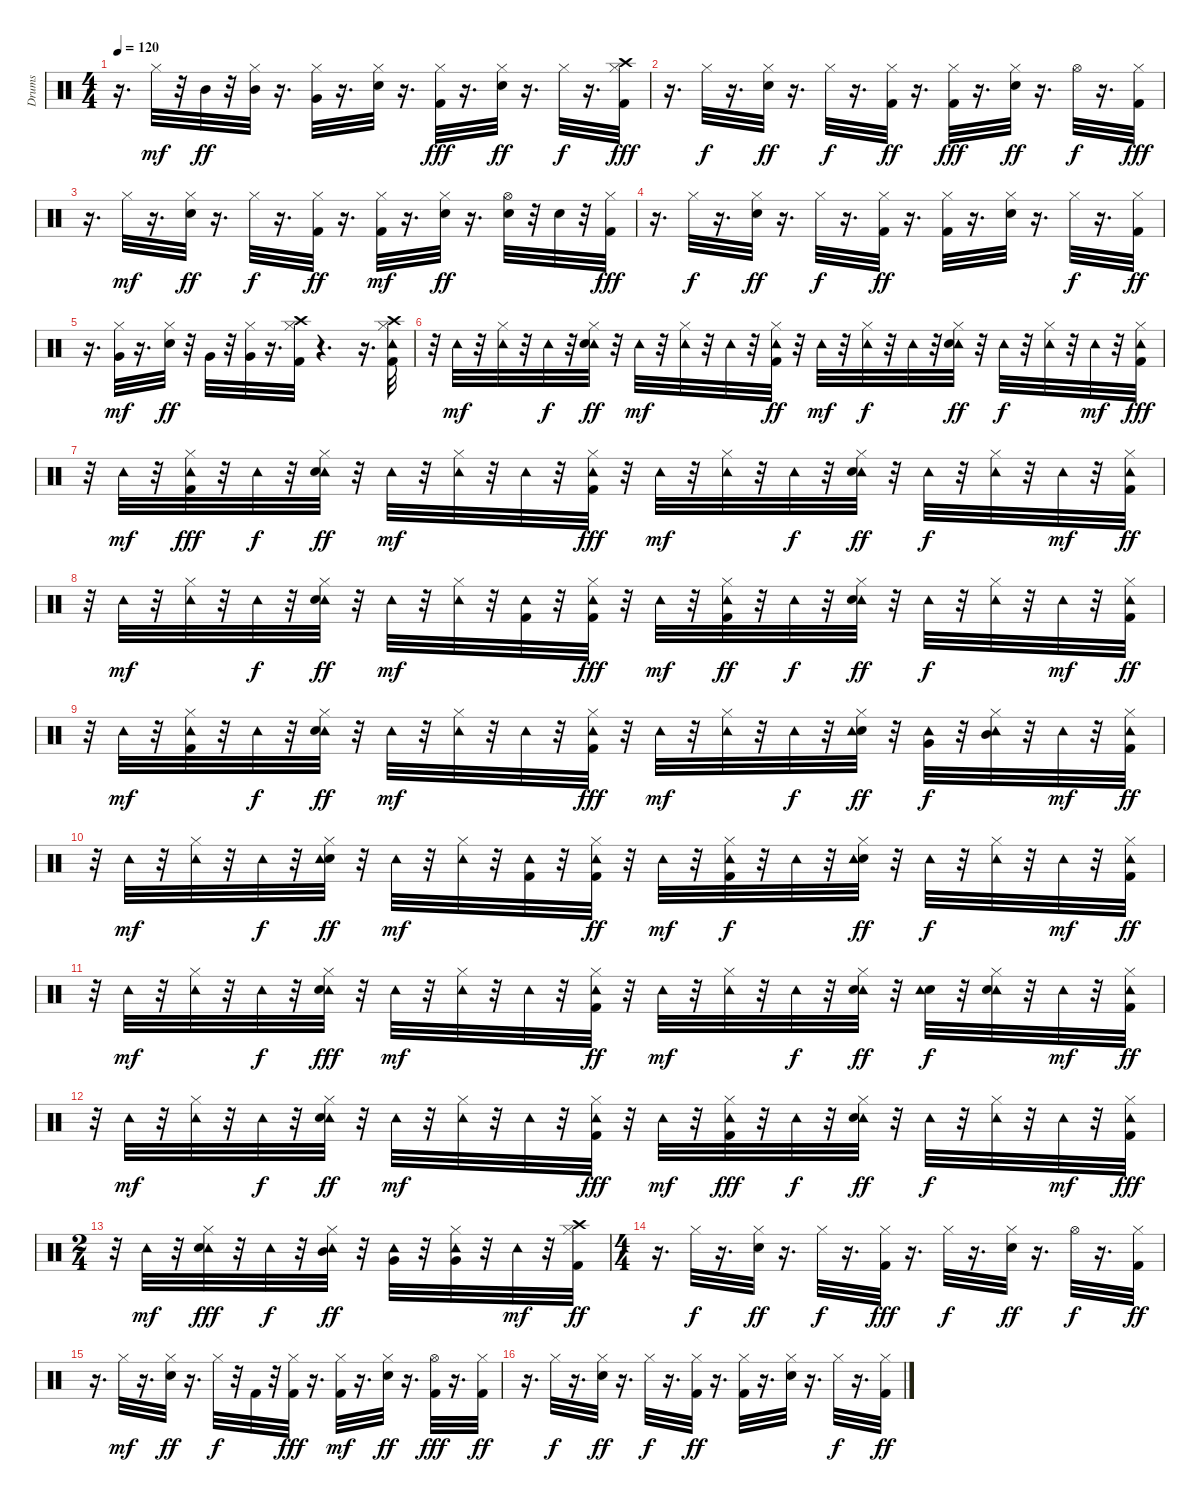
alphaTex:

\track ("Drums" "Drums") {instrument percussion}
\staff {score}
\articulation defaults
\ts (4 4)
\tempo 120
\clef neutral
\ks c
r.16{d dy ff} "Hi-Hat (closed)".32{dy mf} r.32 "Mid Tom (hit)".32{dy ff} r.32 ("Mid Tom (hit)" "Hi-Hat (closed)").32 r.16{d} ("Very Low Tom (hit)" "Hi-Hat (closed)").32 r.16{d} ("Snare (hit) 2" "Hi-Hat (closed)").32 r.16{d} ("Hi-Hat (closed)" "Kick (hit) 2").32{dy fff} r.16{d} ("Snare (hit) 2" "Hi-Hat (closed)").32{dy ff} r.16{d} "Hi-Hat (closed)".32{dy f} r.16{d} ("Crash high (hit)" "Hi-Hat (closed)" "Kick (hit) 2").32{dy fff} |
r.16{d} "Hi-Hat (closed)".32{dy f} r.16{d} ("Snare (hit) 2" "Hi-Hat (closed)").32{dy ff} r.16{d} "Hi-Hat (closed)".32{dy f} r.16{d} ("Kick (hit) 2" "Hi-Hat (closed)").32{dy ff} r.16{d} ("Hi-Hat (closed)" "Kick (hit) 2").32{dy fff} r.16{d} ("Snare (hit) 2" "Hi-Hat (closed)").32{dy ff} r.16{d} "Hi-Hat (open)".32{dy f} r.16{d} ("Hi-Hat (closed)" "Kick (hit) 2").32{dy fff} |
r.16{d} "Hi-Hat (closed)".32{dy mf} r.16{d} ("Snare (hit) 2" "Hi-Hat (closed)").32{dy ff} r.16{d} "Hi-Hat (closed)".32{dy f} r.16{d} ("Kick (hit) 2" "Hi-Hat (closed)").32{dy ff} r.16{d} ("Kick (hit) 2" "Hi-Hat (closed)").32{dy mf} r.16{d} ("Snare (hit) 2" "Hi-Hat (closed)").32{dy ff} r.16{d} ("Snare (hit) 2" "Hi-Hat (open)").32 r.32 "Snare (hit) 2".32 r.32 ("Hi-Hat (closed)" "Kick (hit) 2").32{dy fff} |
r.16{d} "Hi-Hat (closed)".32{dy f} r.16{d} ("Snare (hit) 2" "Hi-Hat (closed)").32{dy ff} r.16{d} "Hi-Hat (closed)".32{dy f} r.16{d} ("Kick (hit) 2" "Hi-Hat (closed)").32{dy ff} r.16{d} ("Kick (hit) 2" "Hi-Hat (closed)").32 r.16{d} ("Snare (hit) 2" "Hi-Hat (closed)").32 r.16{d} "Hi-Hat (closed)".32{dy f} r.16{d} ("Kick (hit) 2" "Hi-Hat (closed)").32{dy ff} |
r.16{d} ("Very Low Tom (hit)" "Hi-Hat (closed)").32{dy mf} r.16{d} ("Snare (hit) 2" "Hi-Hat (closed)").32{dy ff} r.32 "Very Low Tom (hit)".32 r.32 ("Very Low Tom (hit)" "Hi-Hat (closed)").32 r.16{d} ("Crash high (hit)" "Kick (hit) 2" "Hi-Hat (closed)").32 r.4{d} r.16{d} ("Tambourine (hit)" "Crash high (hit)" "Kick (hit) 2" "Hi-Hat (closed)").32 |
r.32 "Tambourine (hit)".32{dy mf} r.32 ("Tambourine (hit)" "Hi-Hat (closed)").32 r.32 "Tambourine (hit)".32{dy f} r.32 ("Tambourine (hit)" "Snare (hit) 2" "Hi-Hat (closed)").32{dy ff} r.32 "Tambourine (hit)".32{dy mf} r.32 ("Tambourine (hit)" "Hi-Hat (closed)").32 r.32 "Tambourine (hit)".32 r.32 ("Tambourine (hit)" "Kick (hit) 2" "Hi-Hat (closed)").32{dy ff} r.32 "Tambourine (hit)".32{dy mf} r.32 ("Tambourine (hit)" "Hi-Hat (closed)").32{dy f} r.32 "Tambourine (hit)".32 r.32 ("Tambourine (hit)" "Snare (hit) 2" "Hi-Hat (closed)").32{dy ff} r.32 "Tambourine (hit)".32{dy f} r.32 ("Tambourine (hit)" "Hi-Hat (closed)").32 r.32 "Tambourine (hit)".32{dy mf} r.32 ("Tambourine (hit)" "Hi-Hat (closed)" "Kick (hit) 2").32{dy fff} |
r.32 "Tambourine (hit)".32{dy mf} r.32 ("Tambourine (hit)" "Hi-Hat (closed)" "Kick (hit) 2").32{dy fff} r.32 "Tambourine (hit)".32{dy f} r.32 ("Tambourine (hit)" "Snare (hit) 2" "Hi-Hat (closed)").32{dy ff} r.32 "Tambourine (hit)".32{dy mf} r.32 ("Tambourine (hit)" "Hi-Hat (closed)").32 r.32 "Tambourine (hit)".32 r.32 ("Tambourine (hit)" "Hi-Hat (closed)" "Kick (hit) 2").32{dy fff} r.32 "Tambourine (hit)".32{dy mf} r.32 ("Tambourine (hit)" "Hi-Hat (closed)").32 r.32 "Tambourine (hit)".32{dy f} r.32 ("Tambourine (hit)" "Snare (hit) 2" "Hi-Hat (closed)").32{dy ff} r.32 "Tambourine (hit)".32{dy f} r.32 ("Tambourine (hit)" "Hi-Hat (closed)").32 r.32 "Tambourine (hit)".32{dy mf} r.32 ("Kick (hit) 2" "Tambourine (hit)" "Hi-Hat (closed)").32{dy ff} |
r.32 "Tambourine (hit)".32{dy mf} r.32 ("Tambourine (hit)" "Hi-Hat (closed)").32 r.32 "Tambourine (hit)".32{dy f} r.32 ("Tambourine (hit)" "Snare (hit) 2" "Hi-Hat (closed)").32{dy ff} r.32 "Tambourine (hit)".32{dy mf} r.32 ("Tambourine (hit)" "Hi-Hat (closed)").32 r.32 ("Tambourine (hit)" "Kick (hit) 2").32 r.32 ("Tambourine (hit)" "Hi-Hat (closed)" "Kick (hit) 2").32{dy fff} r.32 "Tambourine (hit)".32{dy mf} r.32 ("Tambourine (hit)" "Kick (hit) 2" "Hi-Hat (closed)").32{dy ff} r.32 "Tambourine (hit)".32{dy f} r.32 ("Tambourine (hit)" "Snare (hit) 2" "Hi-Hat (closed)").32{dy ff} r.32 "Tambourine (hit)".32{dy f} r.32 ("Tambourine (hit)" "Hi-Hat (closed)").32 r.32 "Tambourine (hit)".32{dy mf} r.32 ("Tambourine (hit)" "Kick (hit) 2" "Hi-Hat (closed)").32{dy ff} |
r.32 "Tambourine (hit)".32{dy mf} r.32 ("Tambourine (hit)" "Kick (hit) 2" "Hi-Hat (closed)").32 r.32 "Tambourine (hit)".32{dy f} r.32 ("Tambourine (hit)" "Snare (hit) 2" "Hi-Hat (closed)").32{dy ff} r.32 "Tambourine (hit)".32{dy mf} r.32 ("Tambourine (hit)" "Hi-Hat (closed)").32 r.32 "Tambourine (hit)".32 r.32 ("Tambourine (hit)" "Hi-Hat (closed)" "Kick (hit) 2").32{dy fff} r.32 "Tambourine (hit)".32{dy mf} r.32 ("Tambourine (hit)" "Hi-Hat (closed)").32 r.32 "Tambourine (hit)".32{dy f} r.32 ("Snare (hit) 2" "Tambourine (hit)" "Hi-Hat (closed)").32{dy ff} r.32 ("Tambourine (hit)" "Very Low Tom (hit)").32{dy f} r.32 ("Tambourine (hit)" "Hi-Hat (closed)" "Mid Tom (hit)").32 r.32 "Tambourine (hit)".32{dy mf} r.32 ("Tambourine (hit)" "Kick (hit) 2" "Hi-Hat (closed)").32{dy ff} |
r.32 "Tambourine (hit)".32{dy mf} r.32 ("Tambourine (hit)" "Hi-Hat (closed)").32 r.32 "Tambourine (hit)".32{dy f} r.32 ("Snare (hit) 2" "Tambourine (hit)" "Hi-Hat (closed)").32{dy ff} r.32 "Tambourine (hit)".32{dy mf} r.32 ("Tambourine (hit)" "Hi-Hat (closed)").32 r.32 ("Tambourine (hit)" "Kick (hit) 2").32 r.32 ("Tambourine (hit)" "Kick (hit) 2" "Hi-Hat (closed)").32{dy ff} r.32 "Tambourine (hit)".32{dy mf} r.32 ("Tambourine (hit)" "Kick (hit) 2" "Hi-Hat (closed)").32{dy f} r.32 "Tambourine (hit)".32 r.32 ("Snare (hit) 2" "Tambourine (hit)" "Hi-Hat (closed)").32{dy ff} r.32 "Tambourine (hit)".32{dy f} r.32 ("Tambourine (hit)" "Hi-Hat (closed)").32 r.32 "Tambourine (hit)".32{dy mf} r.32 ("Tambourine (hit)" "Kick (hit) 2" "Hi-Hat (closed)").32{dy ff} |
r.32 "Tambourine (hit)".32{dy mf} r.32 ("Tambourine (hit)" "Hi-Hat (closed)").32 r.32 "Tambourine (hit)".32{dy f} r.32 ("Tambourine (hit)" "Hi-Hat (closed)" "Snare (hit) 2").32{dy fff} r.32 "Tambourine (hit)".32{dy mf} r.32 ("Tambourine (hit)" "Hi-Hat (closed)").32 r.32 "Tambourine (hit)".32 r.32 ("Tambourine (hit)" "Kick (hit) 2" "Hi-Hat (closed)").32{dy ff} r.32 "Tambourine (hit)".32{dy mf} r.32 ("Tambourine (hit)" "Hi-Hat (closed)").32 r.32 "Tambourine (hit)".32{dy f} r.32 ("Tambourine (hit)" "Snare (hit) 2" "Hi-Hat (closed)").32{dy ff} r.32 ("Snare (hit) 2" "Tambourine (hit)").32{dy f} r.32 ("Tambourine (hit)" "Snare (hit) 2" "Hi-Hat (closed)").32 r.32 "Tambourine (hit)".32{dy mf} r.32 ("Tambourine (hit)" "Kick (hit) 2" "Hi-Hat (closed)").32{dy ff} |
r.32 "Tambourine (hit)".32{dy mf} r.32 ("Tambourine (hit)" "Hi-Hat (closed)").32 r.32 "Tambourine (hit)".32{dy f} r.32 ("Tambourine (hit)" "Snare (hit) 2" "Hi-Hat (closed)").32{dy ff} r.32 "Tambourine (hit)".32{dy mf} r.32 ("Tambourine (hit)" "Hi-Hat (closed)").32 r.32 "Tambourine (hit)".32 r.32 ("Tambourine (hit)" "Hi-Hat (closed)" "Kick (hit) 2").32{dy fff} r.32 "Tambourine (hit)".32{dy mf} r.32 ("Tambourine (hit)" "Hi-Hat (closed)" "Kick (hit) 2").32{dy fff} r.32 "Tambourine (hit)".32{dy f} r.32 ("Tambourine (hit)" "Snare (hit) 2" "Hi-Hat (closed)").32{dy ff} r.32 "Tambourine (hit)".32{dy f} r.32 ("Tambourine (hit)" "Hi-Hat (closed)").32 r.32 "Tambourine (hit)".32{dy mf} r.32 ("Tambourine (hit)" "Hi-Hat (closed)" "Kick (hit) 2").32{dy fff} |
\ts (2 4)
r.32 "Tambourine (hit)".32{dy mf} r.32 ("Tambourine (hit)" "Snare (hit) 2" "Hi-Hat (closed)").32{dy fff} r.32 "Tambourine (hit)".32{dy f} r.32 ("Tambourine (hit)" "Mid Tom (hit)" "Hi-Hat (closed)").32{dy ff} r.32 ("Tambourine (hit)" "Very Low Tom (hit)").32 r.32 ("Tambourine (hit)" "Very Low Tom (hit)" "Hi-Hat (closed)").32 r.32 "Tambourine (hit)".32{dy mf} r.32 ("Crash high (hit)" "Kick (hit) 2" "Hi-Hat (closed)").32{dy ff} |
\ts (4 4)
r.16{d} "Hi-Hat (closed)".32{dy f} r.16{d} ("Snare (hit) 2" "Hi-Hat (closed)").32{dy ff} r.16{d} "Hi-Hat (closed)".32{dy f} r.16{d} ("Hi-Hat (closed)" "Kick (hit) 2").32{dy fff} r.16{d} "Hi-Hat (closed)".32{dy f} r.16{d} ("Snare (hit) 2" "Hi-Hat (closed)").32{dy ff} r.16{d} "Hi-Hat (open)".32{dy f} r.16{d} ("Kick (hit) 2" "Hi-Hat (closed)").32{dy ff} |
r.16{d} "Hi-Hat (closed)".32{dy mf} r.16{d} ("Snare (hit) 2" "Hi-Hat (closed)").32{dy ff} r.16{d} "Hi-Hat (closed)".32{dy f} r.32 "Kick (hit) 2".32 r.32 ("Hi-Hat (closed)" "Kick (hit) 2").32{dy fff} r.16{d} ("Kick (hit) 2" "Hi-Hat (closed)").32{dy mf} r.16{d} ("Snare (hit) 2" "Hi-Hat (closed)").32{dy ff} r.16{d} ("Hi-Hat (open)" "Kick (hit) 2").32{dy fff} r.16{d} ("Kick (hit) 2" "Hi-Hat (closed)").32{dy ff} |
r.16{d} "Hi-Hat (closed)".32{dy f} r.16{d} ("Snare (hit) 2" "Hi-Hat (closed)").32{dy ff} r.16{d} "Hi-Hat (closed)".32{dy f} r.16{d} ("Kick (hit) 2" "Hi-Hat (closed)").32{dy ff} r.16{d} ("Kick (hit) 2" "Hi-Hat (closed)").32 r.16{d} ("Snare (hit) 2" "Hi-Hat (closed)").32 r.16{d} "Hi-Hat (closed)".32{dy f} r.16{d} ("Kick (hit) 2" "Hi-Hat (closed)").32{dy ff}
